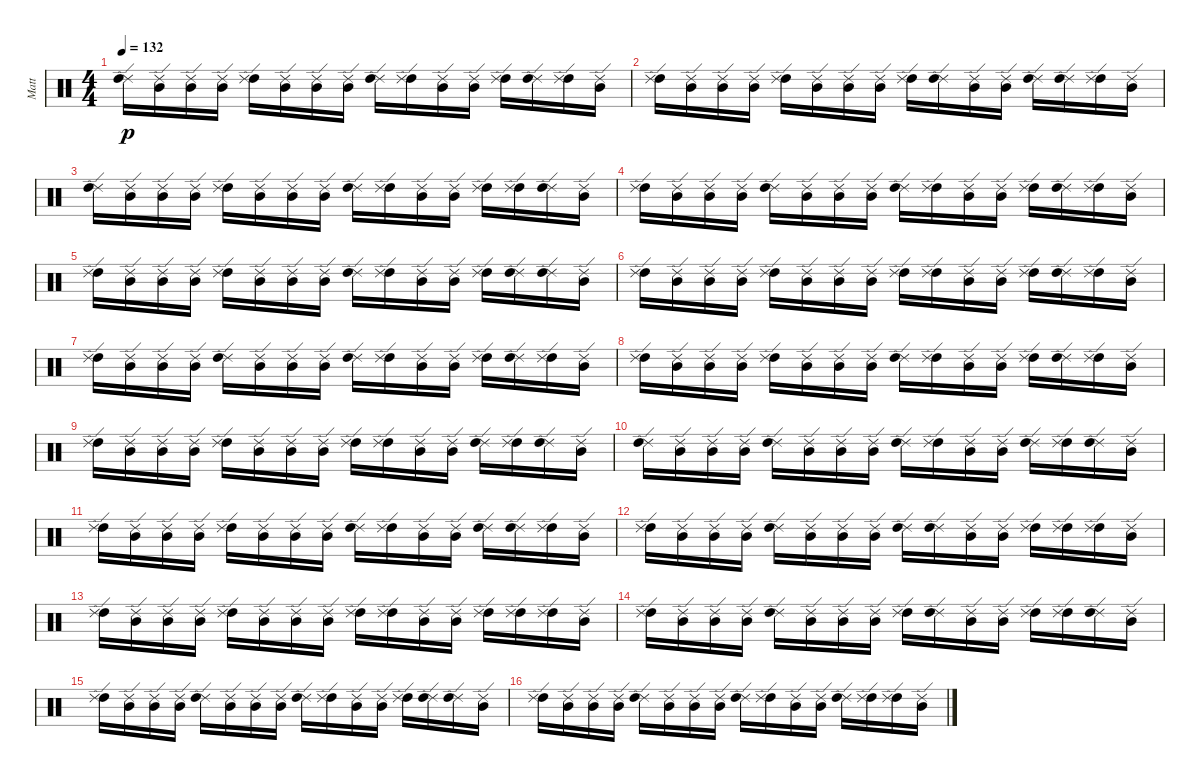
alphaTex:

\track ("Matt" "Matt") {instrument percussion}
\staff {score}
\articulation defaults
\ts (4 4)
\tempo 132
\clef neutral
\ks c
("Ride (edge) 2" "High Tom (hit)").16{dy p} ("Mid Tom (hit)" "Ride (edge) 2").16 ("Ride (edge) 2" "Mid Tom (hit)").16 ("Ride (edge) 2" "Mid Tom (hit)").16 ("High Tom (hit)" "Ride (edge) 2").16 ("Ride (edge) 2" "Mid Tom (hit)").16 ("Ride (edge) 2" "Mid Tom (hit)").16 ("Ride (edge) 2" "Mid Tom (hit)").16 ("Ride (edge) 2" "High Tom (hit)").16 ("High Tom (hit)" "Ride (edge) 2").16 ("Mid Tom (hit)" "Ride (edge) 2").16 ("Ride (edge) 2" "Mid Tom (hit)").16 ("High Tom (hit)" "Ride (edge) 2").16 ("Ride (edge) 2" "High Tom (hit)").16 ("High Tom (hit)" "Ride (edge) 2").16 ("Ride (edge) 2" "Mid Tom (hit)").16 |
("High Tom (hit)" "Ride (edge) 2").16 ("Mid Tom (hit)" "Ride (edge) 2").16 ("Mid Tom (hit)" "Ride (edge) 2").16 ("Mid Tom (hit)" "Ride (edge) 2").16 ("High Tom (hit)" "Ride (edge) 2").16 ("Mid Tom (hit)" "Ride (edge) 2").16 ("Mid Tom (hit)" "Ride (edge) 2").16 ("Mid Tom (hit)" "Ride (edge) 2").16 ("High Tom (hit)" "Ride (edge) 2").16 ("Ride (edge) 2" "High Tom (hit)").16 ("Mid Tom (hit)" "Ride (edge) 2").16 ("Ride (edge) 2" "Mid Tom (hit)").16 ("Ride (edge) 2" "High Tom (hit)").16 ("Ride (edge) 2" "High Tom (hit)").16 ("High Tom (hit)" "Ride (edge) 2").16 ("Ride (edge) 2" "Mid Tom (hit)").16 |
("Ride (edge) 2" "High Tom (hit)").16 ("Mid Tom (hit)" "Ride (edge) 2").16 ("Ride (edge) 2" "Mid Tom (hit)").16 ("Mid Tom (hit)" "Ride (edge) 2").16 ("High Tom (hit)" "Ride (edge) 2").16 ("Mid Tom (hit)" "Ride (edge) 2").16 ("Mid Tom (hit)" "Ride (edge) 2").16 ("Ride (edge) 2" "Mid Tom (hit)").16 ("Ride (edge) 2" "High Tom (hit)").16 ("High Tom (hit)" "Ride (edge) 2").16 ("Mid Tom (hit)" "Ride (edge) 2").16 ("Ride (edge) 2" "Mid Tom (hit)").16 ("High Tom (hit)" "Ride (edge) 2").16 ("High Tom (hit)" "Ride (edge) 2").16 ("Ride (edge) 2" "High Tom (hit)").16 ("Ride (edge) 2" "Mid Tom (hit)").16 |
("High Tom (hit)" "Ride (edge) 2").16 ("Ride (edge) 2" "Mid Tom (hit)").16 ("Mid Tom (hit)" "Ride (edge) 2").16 ("Ride (edge) 2" "Mid Tom (hit)").16 ("Ride (edge) 2" "High Tom (hit)").16 ("Ride (edge) 2" "Mid Tom (hit)").16 ("Ride (edge) 2" "Mid Tom (hit)").16 ("Mid Tom (hit)" "Ride (edge) 2").16 ("Ride (edge) 2" "High Tom (hit)").16 ("High Tom (hit)" "Ride (edge) 2").16 ("Ride (edge) 2" "Mid Tom (hit)").16 ("Mid Tom (hit)" "Ride (edge) 2").16 ("High Tom (hit)" "Ride (edge) 2").16 ("Ride (edge) 2" "High Tom (hit)").16 ("High Tom (hit)" "Ride (edge) 2").16 ("Mid Tom (hit)" "Ride (edge) 2").16 |
("High Tom (hit)" "Ride (edge) 2").16 ("Mid Tom (hit)" "Ride (edge) 2").16 ("Mid Tom (hit)" "Ride (edge) 2").16 ("Ride (edge) 2" "Mid Tom (hit)").16 ("High Tom (hit)" "Ride (edge) 2").16 ("Ride (edge) 2" "Mid Tom (hit)").16 ("Mid Tom (hit)" "Ride (edge) 2").16 ("Mid Tom (hit)" "Ride (edge) 2").16 ("Ride (edge) 2" "High Tom (hit)").16 ("High Tom (hit)" "Ride (edge) 2").16 ("Mid Tom (hit)" "Ride (edge) 2").16 ("Ride (edge) 2" "Mid Tom (hit)").16 ("High Tom (hit)" "Ride (edge) 2").16 ("Ride (edge) 2" "High Tom (hit)").16 ("Ride (edge) 2" "High Tom (hit)").16 ("Ride (edge) 2" "Mid Tom (hit)").16 |
("High Tom (hit)" "Ride (edge) 2").16 ("Ride (edge) 2" "Mid Tom (hit)").16 ("Ride (edge) 2" "Mid Tom (hit)").16 ("Mid Tom (hit)" "Ride (edge) 2").16 ("High Tom (hit)" "Ride (edge) 2").16 ("Mid Tom (hit)" "Ride (edge) 2").16 ("Ride (edge) 2" "Mid Tom (hit)").16 ("Ride (edge) 2" "Mid Tom (hit)").16 ("High Tom (hit)" "Ride (edge) 2").16 ("High Tom (hit)" "Ride (edge) 2").16 ("Ride (edge) 2" "Mid Tom (hit)").16 ("Mid Tom (hit)" "Ride (edge) 2").16 ("High Tom (hit)" "Ride (edge) 2").16 ("Ride (edge) 2" "High Tom (hit)").16 ("High Tom (hit)" "Ride (edge) 2").16 ("Ride (edge) 2" "Mid Tom (hit)").16 |
("High Tom (hit)" "Ride (edge) 2").16 ("Mid Tom (hit)" "Ride (edge) 2").16 ("Mid Tom (hit)" "Ride (edge) 2").16 ("Mid Tom (hit)" "Ride (edge) 2").16 ("Ride (edge) 2" "High Tom (hit)").16 ("Ride (edge) 2" "Mid Tom (hit)").16 ("Ride (edge) 2" "Mid Tom (hit)").16 ("Ride (edge) 2" "Mid Tom (hit)").16 ("Ride (edge) 2" "High Tom (hit)").16 ("High Tom (hit)" "Ride (edge) 2").16 ("Ride (edge) 2" "Mid Tom (hit)").16 ("Mid Tom (hit)" "Ride (edge) 2").16 ("High Tom (hit)" "Ride (edge) 2").16 ("Ride (edge) 2" "High Tom (hit)").16 ("High Tom (hit)" "Ride (edge) 2").16 ("Mid Tom (hit)" "Ride (edge) 2").16 |
("High Tom (hit)" "Ride (edge) 2").16 ("Mid Tom (hit)" "Ride (edge) 2").16 ("Ride (edge) 2" "Mid Tom (hit)").16 ("Mid Tom (hit)" "Ride (edge) 2").16 ("High Tom (hit)" "Ride (edge) 2").16 ("Mid Tom (hit)" "Ride (edge) 2").16 ("Ride (edge) 2" "Mid Tom (hit)").16 ("Ride (edge) 2" "Mid Tom (hit)").16 ("Ride (edge) 2" "High Tom (hit)").16 ("High Tom (hit)" "Ride (edge) 2").16 ("Mid Tom (hit)" "Ride (edge) 2").16 ("Ride (edge) 2" "Mid Tom (hit)").16 ("High Tom (hit)" "Ride (edge) 2").16 ("Ride (edge) 2" "High Tom (hit)").16 ("High Tom (hit)" "Ride (edge) 2").16 ("Mid Tom (hit)" "Ride (edge) 2").16 |
("High Tom (hit)" "Ride (edge) 2").16 ("Mid Tom (hit)" "Ride (edge) 2").16 ("Ride (edge) 2" "Mid Tom (hit)").16 ("Ride (edge) 2" "Mid Tom (hit)").16 ("High Tom (hit)" "Ride (edge) 2").16 ("Ride (edge) 2" "Mid Tom (hit)").16 ("Mid Tom (hit)" "Ride (edge) 2").16 ("Mid Tom (hit)" "Ride (edge) 2").16 ("High Tom (hit)" "Ride (edge) 2").16 ("High Tom (hit)" "Ride (edge) 2").16 ("Ride (edge) 2" "Mid Tom (hit)").16 ("Mid Tom (hit)" "Ride (edge) 2").16 ("Ride (edge) 2" "High Tom (hit)").16 ("High Tom (hit)" "Ride (edge) 2").16 ("Ride (edge) 2" "High Tom (hit)").16 ("Ride (edge) 2" "Mid Tom (hit)").16 |
("Ride (edge) 2" "High Tom (hit)").16 ("Mid Tom (hit)" "Ride (edge) 2").16 ("Mid Tom (hit)" "Ride (edge) 2").16 ("Ride (edge) 2" "Mid Tom (hit)").16 ("Ride (edge) 2" "High Tom (hit)").16 ("Ride (edge) 2" "Mid Tom (hit)").16 ("Mid Tom (hit)" "Ride (edge) 2").16 ("Mid Tom (hit)" "Ride (edge) 2").16 ("Ride (edge) 2" "High Tom (hit)").16 ("High Tom (hit)" "Ride (edge) 2").16 ("Mid Tom (hit)" "Ride (edge) 2").16 ("Mid Tom (hit)" "Ride (edge) 2").16 ("Ride (edge) 2" "High Tom (hit)").16 ("High Tom (hit)" "Ride (edge) 2").16 ("Ride (edge) 2" "High Tom (hit)").16 ("Mid Tom (hit)" "Ride (edge) 2").16 |
("High Tom (hit)" "Ride (edge) 2").16 ("Ride (edge) 2" "Mid Tom (hit)").16 ("Mid Tom (hit)" "Ride (edge) 2").16 ("Ride (edge) 2" "Mid Tom (hit)").16 ("High Tom (hit)" "Ride (edge) 2").16 ("Mid Tom (hit)" "Ride (edge) 2").16 ("Ride (edge) 2" "Mid Tom (hit)").16 ("Ride (edge) 2" "Mid Tom (hit)").16 ("Ride (edge) 2" "High Tom (hit)").16 ("High Tom (hit)" "Ride (edge) 2").16 ("Ride (edge) 2" "Mid Tom (hit)").16 ("Mid Tom (hit)" "Ride (edge) 2").16 ("Ride (edge) 2" "High Tom (hit)").16 ("Ride (edge) 2" "High Tom (hit)").16 ("High Tom (hit)" "Ride (edge) 2").16 ("Mid Tom (hit)" "Ride (edge) 2").16 |
("High Tom (hit)" "Ride (edge) 2").16 ("Mid Tom (hit)" "Ride (edge) 2").16 ("Ride (edge) 2" "Mid Tom (hit)").16 ("Ride (edge) 2" "Mid Tom (hit)").16 ("Ride (edge) 2" "High Tom (hit)").16 ("Ride (edge) 2" "Mid Tom (hit)").16 ("Ride (edge) 2" "Mid Tom (hit)").16 ("Ride (edge) 2" "Mid Tom (hit)").16 ("Ride (edge) 2" "High Tom (hit)").16 ("Ride (edge) 2" "High Tom (hit)").16 ("Mid Tom (hit)" "Ride (edge) 2").16 ("Mid Tom (hit)" "Ride (edge) 2").16 ("High Tom (hit)" "Ride (edge) 2").16 ("High Tom (hit)" "Ride (edge) 2").16 ("High Tom (hit)" "Ride (edge) 2").16 ("Mid Tom (hit)" "Ride (edge) 2").16 |
("High Tom (hit)" "Ride (edge) 2").16 ("Ride (edge) 2" "Mid Tom (hit)").16 ("Mid Tom (hit)" "Ride (edge) 2").16 ("Mid Tom (hit)" "Ride (edge) 2").16 ("High Tom (hit)" "Ride (edge) 2").16 ("Mid Tom (hit)" "Ride (edge) 2").16 ("Ride (edge) 2" "Mid Tom (hit)").16 ("Mid Tom (hit)" "Ride (edge) 2").16 ("High Tom (hit)" "Ride (edge) 2").16 ("High Tom (hit)" "Ride (edge) 2").16 ("Ride (edge) 2" "Mid Tom (hit)").16 ("Mid Tom (hit)" "Ride (edge) 2").16 ("High Tom (hit)" "Ride (edge) 2").16 ("High Tom (hit)" "Ride (edge) 2").16 ("High Tom (hit)" "Ride (edge) 2").16 ("Mid Tom (hit)" "Ride (edge) 2").16 |
("High Tom (hit)" "Ride (edge) 2").16 ("Mid Tom (hit)" "Ride (edge) 2").16 ("Ride (edge) 2" "Mid Tom (hit)").16 ("Mid Tom (hit)" "Ride (edge) 2").16 ("Ride (edge) 2" "High Tom (hit)").16 ("Ride (edge) 2" "Mid Tom (hit)").16 ("Mid Tom (hit)" "Ride (edge) 2").16 ("Ride (edge) 2" "Mid Tom (hit)").16 ("High Tom (hit)" "Ride (edge) 2").16 ("Ride (edge) 2" "High Tom (hit)").16 ("Ride (edge) 2" "Mid Tom (hit)").16 ("Ride (edge) 2" "Mid Tom (hit)").16 ("High Tom (hit)" "Ride (edge) 2").16 ("High Tom (hit)" "Ride (edge) 2").16 ("Ride (edge) 2" "High Tom (hit)").16 ("Mid Tom (hit)" "Ride (edge) 2").16 |
("High Tom (hit)" "Ride (edge) 2").16 ("Ride (edge) 2" "Mid Tom (hit)").16 ("Mid Tom (hit)" "Ride (edge) 2").16 ("Ride (edge) 2" "Mid Tom (hit)").16 ("Ride (edge) 2" "High Tom (hit)").16 ("Mid Tom (hit)" "Ride (edge) 2").16 ("Mid Tom (hit)" "Ride (edge) 2").16 ("Ride (edge) 2" "Mid Tom (hit)").16 ("Ride (edge) 2" "High Tom (hit)").16 ("High Tom (hit)" "Ride (edge) 2").16 ("Ride (edge) 2" "Mid Tom (hit)").16 ("Mid Tom (hit)" "Ride (edge) 2").16 ("High Tom (hit)" "Ride (edge) 2").16 ("Ride (edge) 2" "High Tom (hit)").16 ("Ride (edge) 2" "High Tom (hit)").16 ("Mid Tom (hit)" "Ride (edge) 2").16 |
("High Tom (hit)" "Ride (edge) 2").16 ("Ride (edge) 2" "Mid Tom (hit)").16 ("Ride (edge) 2" "Mid Tom (hit)").16 ("Ride (edge) 2" "Mid Tom (hit)").16 ("Ride (edge) 2" "High Tom (hit)").16 ("Ride (edge) 2" "Mid Tom (hit)").16 ("Mid Tom (hit)" "Ride (edge) 2").16 ("Ride (edge) 2" "Mid Tom (hit)").16 ("Ride (edge) 2" "High Tom (hit)").16 ("High Tom (hit)" "Ride (edge) 2").16 ("Ride (edge) 2" "Mid Tom (hit)").16 ("Mid Tom (hit)" "Ride (edge) 2").16 ("Ride (edge) 2" "High Tom (hit)").16 ("High Tom (hit)" "Ride (edge) 2").16 ("High Tom (hit)" "Ride (edge) 2").16 ("Mid Tom (hit)" "Ride (edge) 2").16
